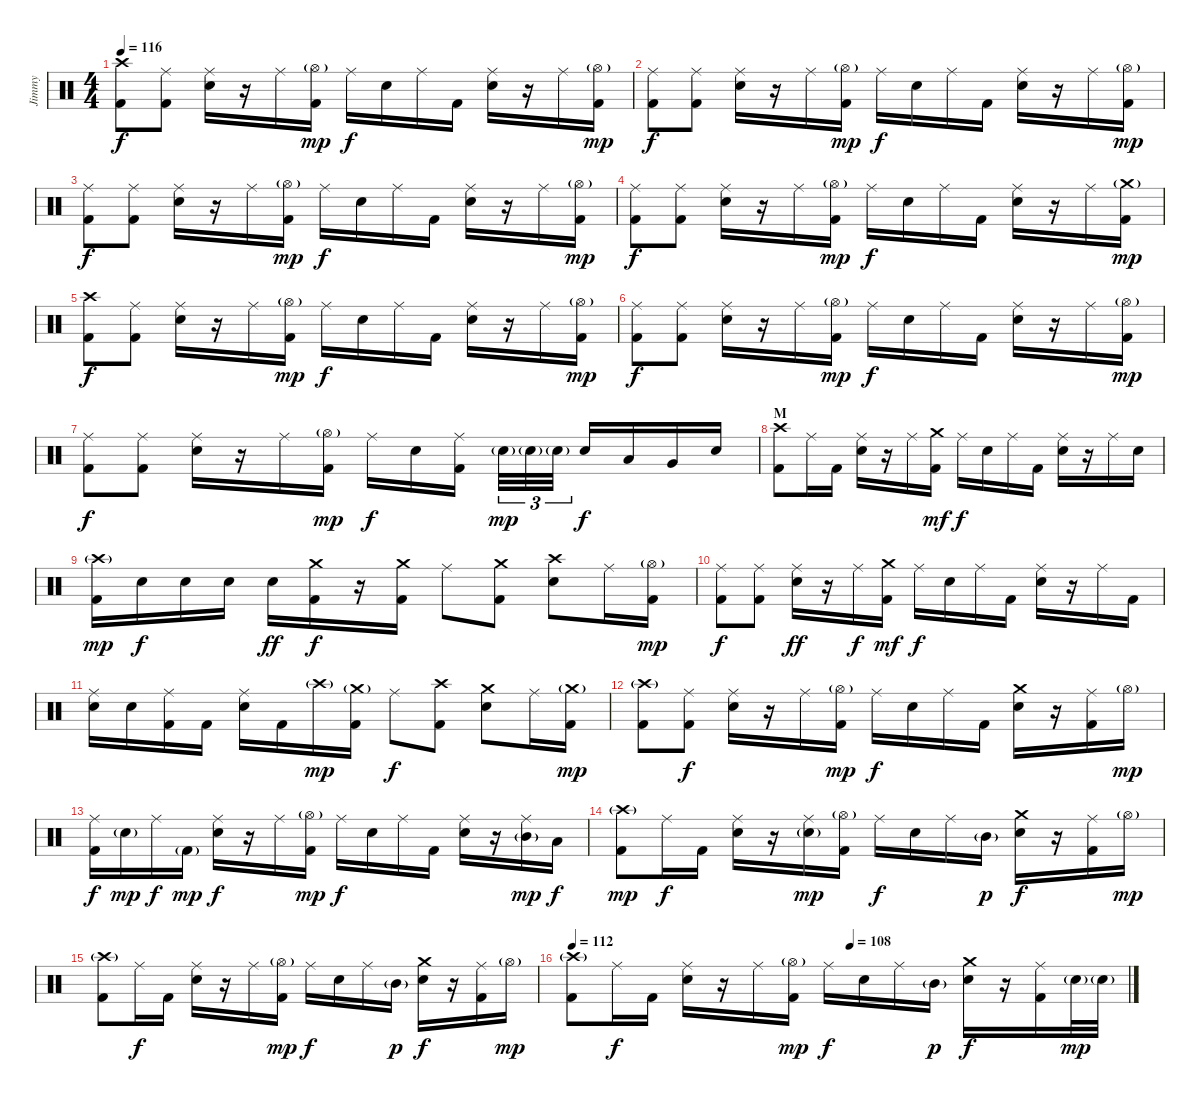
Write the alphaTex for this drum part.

\track ("Jimmy" "Jimmy") {instrument percussion}
\staff {score}
\articulation defaults
\ts (4 4)
\tempo 116
\clef neutral
\ks c
("Crash high (hit)" "Kick (hit) 2").8{dy f} ("Ride (middle)" "Kick (hit) 2").8 ("Ride (middle)" "Electric Snare (hit)").16 r.16 "Ride (middle)".16 ("Hi-Hat (open)"{g} "Kick (hit) 2").16{dy mp} "Ride (middle)".16{dy f} "Electric Snare (hit)".16 "Ride (middle)".16 "Kick (hit) 2".16 ("Ride (middle)" "Electric Snare (hit)").16 r.16 "Ride (middle)".16 ("Hi-Hat (open)"{g} "Kick (hit) 2").16{dy mp} |
("Ride (middle)" "Kick (hit) 2").8{dy f} ("Ride (middle)" "Kick (hit) 2").8 ("Ride (middle)" "Electric Snare (hit)").16 r.16 "Ride (middle)".16 ("Hi-Hat (open)"{g} "Kick (hit) 2").16{dy mp} "Ride (middle)".16{dy f} "Electric Snare (hit)".16 "Ride (middle)".16 "Kick (hit) 2".16 ("Ride (middle)" "Electric Snare (hit)").16 r.16 "Ride (middle)".16 ("Hi-Hat (open)"{g} "Kick (hit) 2").16{dy mp} |
("Ride (middle)" "Kick (hit) 2").8{dy f} ("Ride (middle)" "Kick (hit) 2").8 ("Ride (middle)" "Electric Snare (hit)").16 r.16 "Ride (middle)".16 ("Hi-Hat (open)"{g} "Kick (hit) 2").16{dy mp} "Ride (middle)".16{dy f} "Electric Snare (hit)".16 "Ride (middle)".16 "Kick (hit) 2".16 ("Ride (middle)" "Electric Snare (hit)").16 r.16 "Ride (middle)".16 ("Hi-Hat (open)"{g} "Kick (hit) 2").16{dy mp} |
("Ride (middle)" "Kick (hit) 2").8{dy f} ("Ride (middle)" "Kick (hit) 2").8 ("Ride (middle)" "Electric Snare (hit)").16 r.16 "Ride (middle)".16 ("Hi-Hat (open)"{g} "Kick (hit) 2").16{dy mp} "Ride (middle)".16{dy f} "Electric Snare (hit)".16 "Ride (middle)".16 "Kick (hit) 2".16 ("Ride (middle)" "Electric Snare (hit)").16 r.16 "Ride (middle)".16 ("Crash medium (hit)"{g} "Kick (hit) 2").16{dy mp} |
("Crash high (hit)" "Kick (hit) 2").8{dy f} ("Ride (middle)" "Kick (hit) 2").8 ("Ride (middle)" "Electric Snare (hit)").16 r.16 "Ride (middle)".16 ("Hi-Hat (open)"{g} "Kick (hit) 2").16{dy mp} "Ride (middle)".16{dy f} "Electric Snare (hit)".16 "Ride (middle)".16 "Kick (hit) 2".16 ("Ride (middle)" "Electric Snare (hit)").16 r.16 "Ride (middle)".16 ("Hi-Hat (open)"{g} "Kick (hit) 2").16{dy mp} |
("Ride (middle)" "Kick (hit) 2").8{dy f} ("Ride (middle)" "Kick (hit) 2").8 ("Ride (middle)" "Electric Snare (hit)").16 r.16 "Ride (middle)".16 ("Hi-Hat (open)"{g} "Kick (hit) 2").16{dy mp} "Ride (middle)".16{dy f} "Electric Snare (hit)".16 "Ride (middle)".16 "Kick (hit) 2".16 ("Ride (middle)" "Electric Snare (hit)").16 r.16 "Ride (middle)".16 ("Hi-Hat (open)"{g} "Kick (hit) 2").16{dy mp} |
("Ride (middle)" "Kick (hit) 2").8{dy f} ("Ride (middle)" "Kick (hit) 2").8 ("Ride (middle)" "Electric Snare (hit)").16 r.16 "Ride (middle)".16 ("Hi-Hat (open)"{g} "Kick (hit) 2").16{dy mp} "Ride (middle)".16{dy f} "Electric Snare (hit)".16 ("Ride (middle)" "Kick (hit) 2").16 "Electric Snare (hit)"{g}.32{tu (3 2) dy mp} "Electric Snare (hit)"{g}.32{tu (3 2)} "Electric Snare (hit)"{g}.32{tu (3 2)} "Electric Snare (hit)".16{dy f} "Low Tom (hit)".16 "Very Low Tom (hit)".16 "Electric Snare (hit)".16 |
\section ("" "M")
("Crash high (hit)" "Kick (hit) 2").8 "Ride (middle)".16 "Kick (hit) 2".16 ("Ride (middle)" "Electric Snare (hit)").16 r.16 "Ride (middle)".16 ("Crash medium (hit)" "Kick (hit) 2").16{dy mf} "Ride (middle)".16{dy f} "Electric Snare (hit)".16 "Ride (middle)".16 "Kick (hit) 2".16 ("Ride (middle)" "Electric Snare (hit)").16 r.16 "Ride (middle)".16 "Electric Snare (hit)".16 |
("Crash high (hit)"{g} "Kick (hit) 2").16{dy mp} "Electric Snare (hit)".16{dy f} "Electric Snare (hit)".16 "Electric Snare (hit)".16 "Electric Snare (hit)".16{dy ff} ("Crash medium (hit)" "Kick (hit) 2").16{dy f} r.16 ("Crash medium (hit)" "Kick (hit) 2").16 "Ride (middle)".8 ("Crash medium (hit)" "Kick (hit) 2").8 ("Crash high (hit)" "Electric Snare (hit)").8 "Ride (middle)".16 ("Hi-Hat (open)"{g} "Kick (hit) 2").16{dy mp} |
("Ride (middle)" "Kick (hit) 2").8{dy f} ("Ride (middle)" "Kick (hit) 2").8 ("Ride (middle)" "Electric Snare (hit)").16{dy ff} r.16 "Ride (middle)".16{dy f} ("Crash medium (hit)" "Kick (hit) 2").16{dy mf} "Ride (middle)".16{dy f} "Electric Snare (hit)".16 "Ride (middle)".16 "Kick (hit) 2".16 ("Ride (middle)" "Electric Snare (hit)").16 r.16 "Ride (middle)".16 "Kick (hit) 2".16 |
("Ride (middle)" "Electric Snare (hit)").16 "Electric Snare (hit)".16 ("Ride (middle)" "Kick (hit) 2").16 "Kick (hit) 2".16 ("Ride (middle)" "Electric Snare (hit)").16 "Kick (hit) 2".16 "Crash high (hit)"{g}.16{dy mp} ("Crash medium (hit)"{g} "Kick (hit) 2").16 "Ride (middle)".8{dy f} ("Crash high (hit)" "Kick (hit) 2").8 ("Crash medium (hit)" "Electric Snare (hit)").8 "Ride (middle)".16 ("Crash medium (hit)"{g} "Kick (hit) 2").16{dy mp} |
("Crash high (hit)"{g} "Kick (hit) 2").8 ("Ride (middle)" "Kick (hit) 2").8{dy f} ("Ride (middle)" "Electric Snare (hit)").16 r.16 "Ride (middle)".16 ("Hi-Hat (open)"{g} "Kick (hit) 2").16{dy mp} "Ride (middle)".16{dy f} "Electric Snare (hit)".16 "Ride (middle)".16 "Kick (hit) 2".16 ("Crash medium (hit)" "Electric Snare (hit)").16 r.16 ("Ride (middle)" "Kick (hit) 2").16 "Hi-Hat (open)"{g}.16{dy mp} |
("Ride (middle)" "Kick (hit) 2").16{dy f} "Electric Snare (hit)"{g}.16{dy mp} "Ride (middle)".16{dy f} "Kick (hit) 2"{g}.16{dy mp} ("Ride (middle)" "Electric Snare (hit)").16{dy f} r.16 "Ride (middle)".16 ("Hi-Hat (open)"{g} "Kick (hit) 2").16{dy mp} "Ride (middle)".16{dy f} "Electric Snare (hit)".16 "Ride (middle)".16 "Kick (hit) 2".16 ("Ride (middle)" "Electric Snare (hit)").16 r.16 ("Ride (middle)" "Mid Tom (hit)"{g}).16{dy mp} "Low Tom (hit)".16{dy f} |
("Crash high (hit)"{g} "Kick (hit) 2").8{dy mp} "Ride (middle)".16{dy f} "Kick (hit) 2".16 ("Ride (middle)" "Electric Snare (hit)").16 r.16 ("Ride (middle)" "Electric Snare (hit)"{g}).16{dy mp} ("Hi-Hat (open)"{g} "Kick (hit) 2").16 "Ride (middle)".16{dy f} "Electric Snare (hit)".16 "Ride (middle)".16 "Mid Tom (hit)"{g}.16{dy p} ("Crash medium (hit)" "Electric Snare (hit)").16{dy f} r.16 ("Ride (middle)" "Kick (hit) 2").16 "Hi-Hat (open)"{g}.16{dy mp} |
("Crash high (hit)"{g} "Kick (hit) 2").8 "Ride (middle)".16{dy f} "Kick (hit) 2".16 ("Ride (middle)" "Electric Snare (hit)").16 r.16 "Ride (middle)".16 ("Hi-Hat (open)"{g} "Kick (hit) 2").16{dy mp} "Ride (middle)".16{dy f} "Electric Snare (hit)".16 "Ride (middle)".16 "Mid Tom (hit)"{g}.16{dy p} ("Crash medium (hit)" "Electric Snare (hit)").16{dy f} r.16 ("Ride (middle)" "Kick (hit) 2").16 "Hi-Hat (open)"{g}.16{dy mp} |
\tempo 112
\tempo (108 0.5)
("Crash high (hit)"{g} "Kick (hit) 2").8 "Ride (middle)".16{dy f} "Kick (hit) 2".16 ("Ride (middle)" "Electric Snare (hit)").16 r.16 "Ride (middle)".16 ("Hi-Hat (open)"{g} "Kick (hit) 2").16{dy mp} "Ride (middle)".16{dy f} "Electric Snare (hit)".16 "Ride (middle)".16 "Mid Tom (hit)"{g}.16{dy p} ("Crash medium (hit)" "Electric Snare (hit)").16{dy f} r.16 ("Ride (middle)" "Kick (hit) 2").16 "Electric Snare (hit)"{g}.32{dy mp} "Electric Snare (hit)"{g}.32
